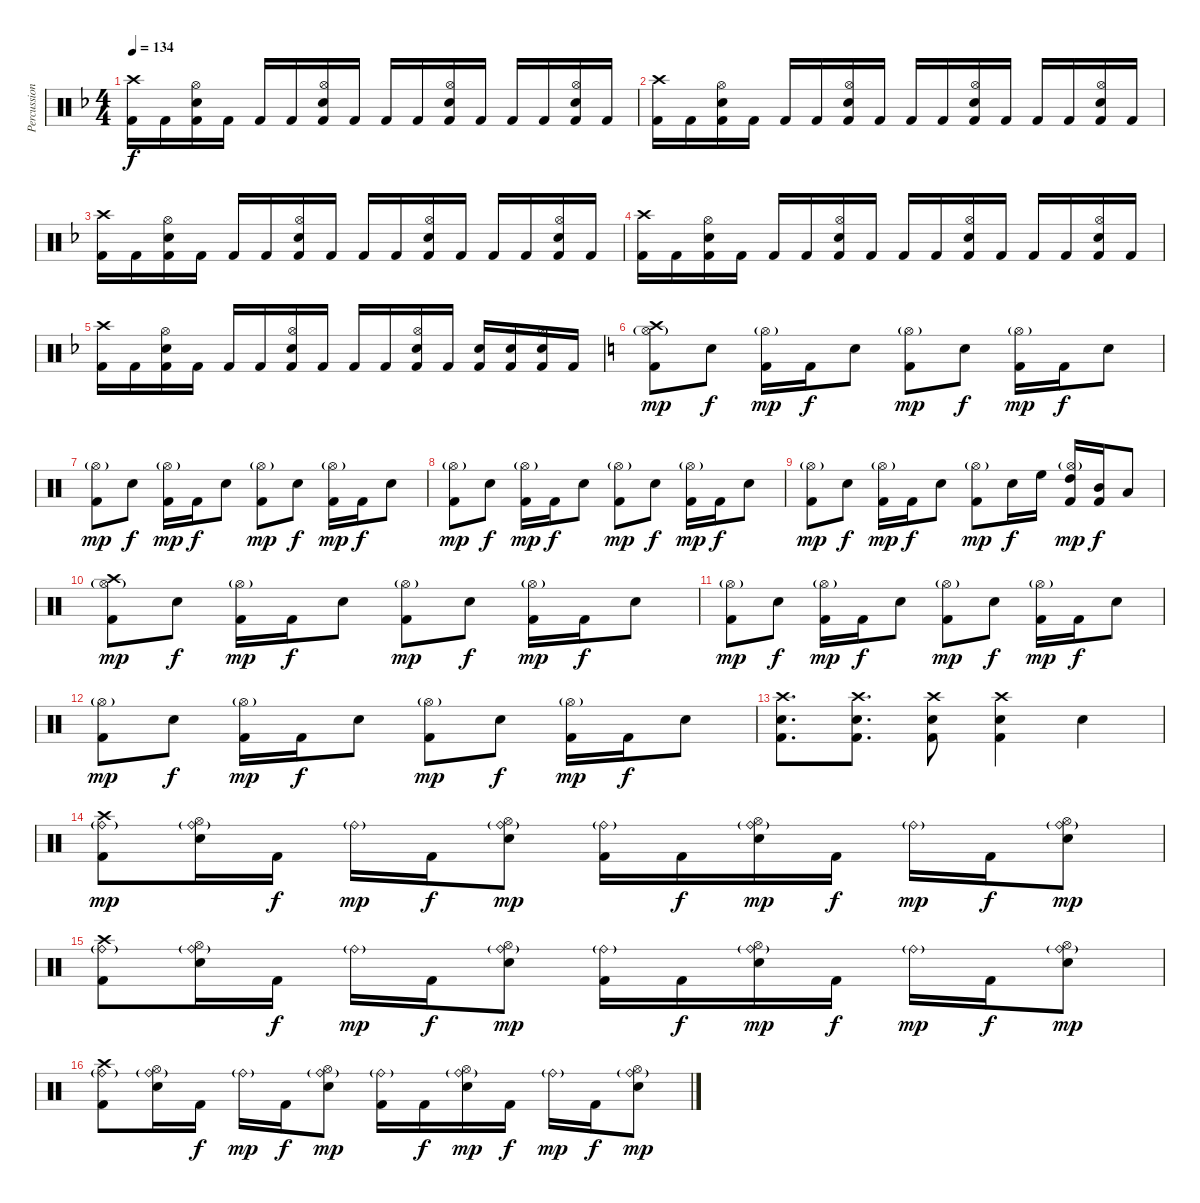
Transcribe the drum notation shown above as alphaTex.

\track ("Percussion" "Percussion") {instrument percussion}
\staff {score}
\articulation defaults
\ts (4 4)
\tempo 134
\clef neutral
\ks dminor
("Crash high (hit)" "Kick (hit) 2").16{dy f} "Kick (hit) 2".16 ("Hi-Hat (open)" "Electric Snare (hit)" "Kick (hit) 2").16 "Kick (hit) 2".16 "Kick (hit) 2".16 "Kick (hit) 2".16 ("Hi-Hat (open)" "Electric Snare (hit)" "Kick (hit) 2").16 "Kick (hit) 2".16 "Kick (hit) 2".16 "Kick (hit) 2".16 ("Hi-Hat (open)" "Electric Snare (hit)" "Kick (hit) 2").16 "Kick (hit) 2".16 "Kick (hit) 2".16 "Kick (hit) 2".16 ("Hi-Hat (open)" "Electric Snare (hit)" "Kick (hit) 2").16 "Kick (hit) 2".16 |
("Crash high (hit)" "Kick (hit) 2").16 "Kick (hit) 2".16 ("Hi-Hat (open)" "Electric Snare (hit)" "Kick (hit) 2").16 "Kick (hit) 2".16 "Kick (hit) 2".16 "Kick (hit) 2".16 ("Hi-Hat (open)" "Electric Snare (hit)" "Kick (hit) 2").16 "Kick (hit) 2".16 "Kick (hit) 2".16 "Kick (hit) 2".16 ("Hi-Hat (open)" "Electric Snare (hit)" "Kick (hit) 2").16 "Kick (hit) 2".16 "Kick (hit) 2".16 "Kick (hit) 2".16 ("Hi-Hat (open)" "Electric Snare (hit)" "Kick (hit) 2").16 "Kick (hit) 2".16 |
("Crash high (hit)" "Kick (hit) 2").16 "Kick (hit) 2".16 ("Hi-Hat (open)" "Electric Snare (hit)" "Kick (hit) 2").16 "Kick (hit) 2".16 "Kick (hit) 2".16 "Kick (hit) 2".16 ("Hi-Hat (open)" "Electric Snare (hit)" "Kick (hit) 2").16 "Kick (hit) 2".16 "Kick (hit) 2".16 "Kick (hit) 2".16 ("Hi-Hat (open)" "Electric Snare (hit)" "Kick (hit) 2").16 "Kick (hit) 2".16 "Kick (hit) 2".16 "Kick (hit) 2".16 ("Hi-Hat (open)" "Electric Snare (hit)" "Kick (hit) 2").16 "Kick (hit) 2".16 |
("Crash high (hit)" "Kick (hit) 2").16 "Kick (hit) 2".16 ("Hi-Hat (open)" "Electric Snare (hit)" "Kick (hit) 2").16 "Kick (hit) 2".16 "Kick (hit) 2".16 "Kick (hit) 2".16 ("Hi-Hat (open)" "Electric Snare (hit)" "Kick (hit) 2").16 "Kick (hit) 2".16 "Kick (hit) 2".16 "Kick (hit) 2".16 ("Hi-Hat (open)" "Electric Snare (hit)" "Kick (hit) 2").16 "Kick (hit) 2".16 "Kick (hit) 2".16 "Kick (hit) 2".16 ("Hi-Hat (open)" "Electric Snare (hit)" "Kick (hit) 2").16 "Kick (hit) 2".16 |
("Crash high (hit)" "Kick (hit) 2").16 "Kick (hit) 2".16 ("Hi-Hat (open)" "Electric Snare (hit)" "Kick (hit) 2").16 "Kick (hit) 2".16 "Kick (hit) 2".16 "Kick (hit) 2".16 ("Hi-Hat (open)" "Electric Snare (hit)" "Kick (hit) 2").16 "Kick (hit) 2".16 "Kick (hit) 2".16 "Kick (hit) 2".16 ("Hi-Hat (open)" "Electric Snare (hit)" "Kick (hit) 2").16 "Kick (hit) 2".16 ("Electric Snare (hit)" "Kick (hit) 2").16 ("Electric Snare (hit)" "Kick (hit) 2").16 ("Hi-Hat (open)" "Electric Snare (hit)" "Kick (hit) 2").16 "Kick (hit) 2".16 |
\ks aminor
("Crash high (hit)" "Hi-Hat (open)"{g} "Kick (hit) 2").8{dy mp} "Electric Snare (hit)".8{dy f} ("Hi-Hat (open)"{g} "Kick (hit) 2").16{dy mp} "Kick (hit) 2".16{dy f} "Electric Snare (hit)".8 ("Hi-Hat (open)"{g} "Kick (hit) 2").8{dy mp} "Electric Snare (hit)".8{dy f} ("Hi-Hat (open)"{g} "Kick (hit) 2").16{dy mp} "Kick (hit) 2".16{dy f} "Electric Snare (hit)".8 |
("Hi-Hat (open)"{g} "Kick (hit) 2").8{dy mp} "Electric Snare (hit)".8{dy f} ("Hi-Hat (open)"{g} "Kick (hit) 2").16{dy mp} "Kick (hit) 2".16{dy f} "Electric Snare (hit)".8 ("Hi-Hat (open)"{g} "Kick (hit) 2").8{dy mp} "Electric Snare (hit)".8{dy f} ("Hi-Hat (open)"{g} "Kick (hit) 2").16{dy mp} "Kick (hit) 2".16{dy f} "Electric Snare (hit)".8 |
("Hi-Hat (open)"{g} "Kick (hit) 2").8{dy mp} "Electric Snare (hit)".8{dy f} ("Hi-Hat (open)"{g} "Kick (hit) 2").16{dy mp} "Kick (hit) 2".16{dy f} "Electric Snare (hit)".8 ("Hi-Hat (open)"{g} "Kick (hit) 2").8{dy mp} "Electric Snare (hit)".8{dy f} ("Hi-Hat (open)"{g} "Kick (hit) 2").16{dy mp} "Kick (hit) 2".16{dy f} "Electric Snare (hit)".8 |
("Hi-Hat (open)"{g} "Kick (hit) 2").8{dy mp} "Electric Snare (hit)".8{dy f} ("Hi-Hat (open)"{g} "Kick (hit) 2").16{dy mp} "Kick (hit) 2".16{dy f} "Electric Snare (hit)".8 ("Hi-Hat (open)"{g} "Kick (hit) 2").8{dy mp} "Electric Snare (hit)".16{dy f} "High Floor Tom (hit)".16 ("Hi-Hat (open)"{g} "High Tom (hit)" "Kick (hit) 2").16{dy mp} ("Mid Tom (hit)" "Kick (hit) 2").16{dy f} "Low Tom (hit)".8 |
("Crash high (hit)" "Hi-Hat (open)"{g} "Kick (hit) 2").8{dy mp} "Electric Snare (hit)".8{dy f} ("Hi-Hat (open)"{g} "Kick (hit) 2").16{dy mp} "Kick (hit) 2".16{dy f} "Electric Snare (hit)".8 ("Hi-Hat (open)"{g} "Kick (hit) 2").8{dy mp} "Electric Snare (hit)".8{dy f} ("Hi-Hat (open)"{g} "Kick (hit) 2").16{dy mp} "Kick (hit) 2".16{dy f} "Electric Snare (hit)".8 |
("Hi-Hat (open)"{g} "Kick (hit) 2").8{dy mp} "Electric Snare (hit)".8{dy f} ("Hi-Hat (open)"{g} "Kick (hit) 2").16{dy mp} "Kick (hit) 2".16{dy f} "Electric Snare (hit)".8 ("Hi-Hat (open)"{g} "Kick (hit) 2").8{dy mp} "Electric Snare (hit)".8{dy f} ("Hi-Hat (open)"{g} "Kick (hit) 2").16{dy mp} "Kick (hit) 2".16{dy f} "Electric Snare (hit)".8 |
("Hi-Hat (open)"{g} "Kick (hit) 2").8{dy mp} "Electric Snare (hit)".8{dy f} ("Hi-Hat (open)"{g} "Kick (hit) 2").16{dy mp} "Kick (hit) 2".16{dy f} "Electric Snare (hit)".8 ("Hi-Hat (open)"{g} "Kick (hit) 2").8{dy mp} "Electric Snare (hit)".8{dy f} ("Hi-Hat (open)"{g} "Kick (hit) 2").16{dy mp} "Kick (hit) 2".16{dy f} "Electric Snare (hit)".8 |
("Crash high (hit)" "Electric Snare (hit)" "Kick (hit) 2").8{d} ("Crash high (hit)" "Electric Snare (hit)" "Kick (hit) 2").8{d} ("Crash high (hit)" "Electric Snare (hit)" "Kick (hit) 2").8 ("Crash high (hit)" "Electric Snare (hit)" "Kick (hit) 2").4 "Electric Snare (hit)".4 |
("Crash high (hit)" "Ride (bell)"{g} "Kick (hit) 2").8{dy mp} ("Hi-Hat (open)" "Ride (bell)"{g} "Electric Snare (hit)").16 "Kick (hit) 2".16{dy f} "Ride (bell)"{g}.16{dy mp} "Kick (hit) 2".16{dy f} ("Hi-Hat (open)" "Ride (bell)"{g} "Electric Snare (hit)").8{dy mp} ("Ride (bell)"{g} "Kick (hit) 2").16 "Kick (hit) 2".16{dy f} ("Hi-Hat (open)" "Ride (bell)"{g} "Electric Snare (hit)").16{dy mp} "Kick (hit) 2".16{dy f} "Ride (bell)"{g}.16{dy mp} "Kick (hit) 2".16{dy f} ("Hi-Hat (open)" "Ride (bell)"{g} "Electric Snare (hit)").8{dy mp} |
("Crash high (hit)" "Ride (bell)"{g} "Kick (hit) 2").8 ("Hi-Hat (open)" "Ride (bell)"{g} "Electric Snare (hit)").16 "Kick (hit) 2".16{dy f} "Ride (bell)"{g}.16{dy mp} "Kick (hit) 2".16{dy f} ("Hi-Hat (open)" "Ride (bell)"{g} "Electric Snare (hit)").8{dy mp} ("Ride (bell)"{g} "Kick (hit) 2").16 "Kick (hit) 2".16{dy f} ("Hi-Hat (open)" "Ride (bell)"{g} "Electric Snare (hit)").16{dy mp} "Kick (hit) 2".16{dy f} "Ride (bell)"{g}.16{dy mp} "Kick (hit) 2".16{dy f} ("Hi-Hat (open)" "Ride (bell)"{g} "Electric Snare (hit)").8{dy mp} |
("Crash high (hit)" "Ride (bell)"{g} "Kick (hit) 2").8 ("Hi-Hat (open)" "Ride (bell)"{g} "Electric Snare (hit)").16 "Kick (hit) 2".16{dy f} "Ride (bell)"{g}.16{dy mp} "Kick (hit) 2".16{dy f} ("Hi-Hat (open)" "Ride (bell)"{g} "Electric Snare (hit)").8{dy mp} ("Ride (bell)"{g} "Kick (hit) 2").16 "Kick (hit) 2".16{dy f} ("Hi-Hat (open)" "Ride (bell)"{g} "Electric Snare (hit)").16{dy mp} "Kick (hit) 2".16{dy f} "Ride (bell)"{g}.16{dy mp} "Kick (hit) 2".16{dy f} ("Hi-Hat (open)" "Ride (bell)"{g} "Electric Snare (hit)").8{dy mp}
